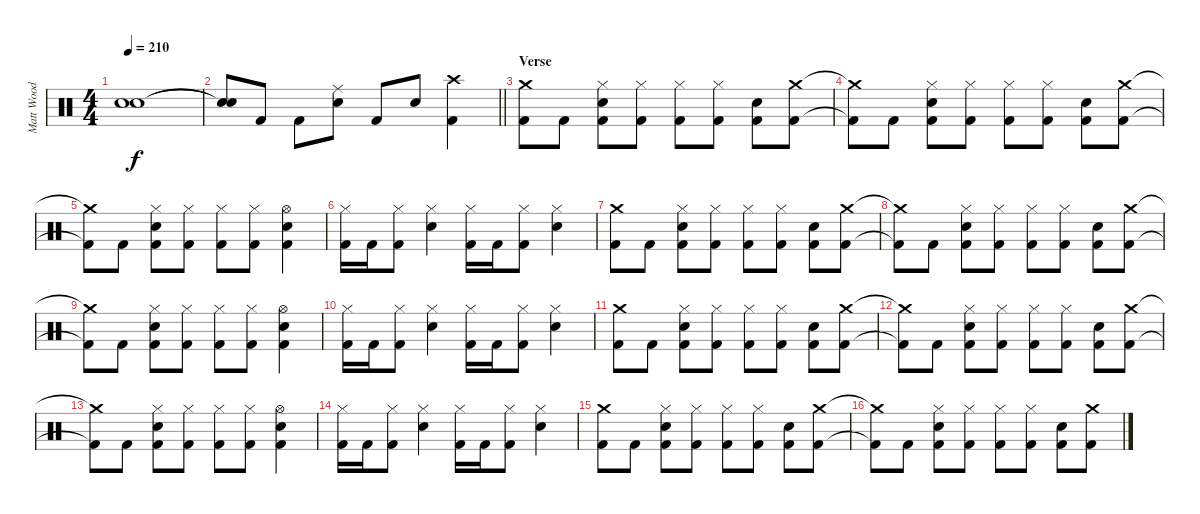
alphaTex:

\track ("Matt Wood" "Matt Wood") {instrument percussion}
\staff {score}
\articulation defaults
\ts (4 4)
\tempo 210
\clef neutral
\ks c
("Snare (hit)"{t} "Snare (hit)"{t}).1{dy f} |
\barLineRight lightlight
("Snare (hit)"{t} "Snare (hit)"{t}).8 "Kick (hit) 2".8 "Kick (hit) 2".8 ("Ride (middle)" "Snare (hit) 2").8 "Kick (hit) 2".8 "Snare (hit) 2".8 ("Crash high (hit)" "Kick (hit) 2").4 |
\section ("" "Verse")
("Crash medium (hit)" "Kick (hit) 2").8 "Kick (hit) 2".8 ("Hi-Hat (closed)" "Snare (hit) 2" "Kick (hit) 2").8 ("Hi-Hat (closed)" "Kick (hit) 2").8 ("Hi-Hat (closed)" "Kick (hit) 2").8 ("Hi-Hat (closed)" "Kick (hit) 2").8 ("Snare (hit) 2" "Kick (hit) 2").8 ("Crash medium (hit)" "Kick (hit) 2").8 |
("Crash medium (hit)"{t} "Kick (hit) 2"{t}).8 "Kick (hit) 2".8 ("Hi-Hat (closed)" "Snare (hit) 2" "Kick (hit) 2").8 ("Hi-Hat (closed)" "Kick (hit) 2").8 ("Hi-Hat (closed)" "Kick (hit) 2").8 ("Hi-Hat (closed)" "Kick (hit) 2").8 ("Snare (hit) 2" "Kick (hit) 2").8 ("Crash medium (hit)" "Kick (hit) 2").8 |
("Crash medium (hit)"{t} "Kick (hit) 2"{t}).8 "Kick (hit) 2".8 ("Hi-Hat (closed)" "Snare (hit) 2" "Kick (hit) 2").8 ("Hi-Hat (closed)" "Kick (hit) 2").8 ("Hi-Hat (closed)" "Kick (hit) 2").8 ("Hi-Hat (closed)" "Kick (hit) 2").8 ("Hi-Hat (open)" "Snare (hit) 2" "Kick (hit) 2").4 |
("Hi-Hat (closed)" "Kick (hit) 2").16 "Kick (hit) 2".16 ("Hi-Hat (closed)" "Kick (hit) 2").8 ("Hi-Hat (closed)" "Snare (hit) 2").4 ("Hi-Hat (closed)" "Kick (hit) 2").16 "Kick (hit) 2".16 ("Hi-Hat (closed)" "Kick (hit) 2").8 ("Hi-Hat (closed)" "Snare (hit) 2").4 |
("Crash medium (hit)" "Kick (hit) 2").8 "Kick (hit) 2".8 ("Hi-Hat (closed)" "Snare (hit) 2" "Kick (hit) 2").8 ("Hi-Hat (closed)" "Kick (hit) 2").8 ("Hi-Hat (closed)" "Kick (hit) 2").8 ("Hi-Hat (closed)" "Kick (hit) 2").8 ("Snare (hit) 2" "Kick (hit) 2").8 ("Crash medium (hit)" "Kick (hit) 2").8 |
("Crash medium (hit)"{t} "Kick (hit) 2"{t}).8 "Kick (hit) 2".8 ("Hi-Hat (closed)" "Snare (hit) 2" "Kick (hit) 2").8 ("Hi-Hat (closed)" "Kick (hit) 2").8 ("Hi-Hat (closed)" "Kick (hit) 2").8 ("Hi-Hat (closed)" "Kick (hit) 2").8 ("Snare (hit) 2" "Kick (hit) 2").8 ("Crash medium (hit)" "Kick (hit) 2").8 |
("Crash medium (hit)"{t} "Kick (hit) 2"{t}).8 "Kick (hit) 2".8 ("Hi-Hat (closed)" "Snare (hit) 2" "Kick (hit) 2").8 ("Hi-Hat (closed)" "Kick (hit) 2").8 ("Hi-Hat (closed)" "Kick (hit) 2").8 ("Hi-Hat (closed)" "Kick (hit) 2").8 ("Hi-Hat (open)" "Snare (hit) 2" "Kick (hit) 2").4 |
("Hi-Hat (closed)" "Kick (hit) 2").16 "Kick (hit) 2".16 ("Hi-Hat (closed)" "Kick (hit) 2").8 ("Hi-Hat (closed)" "Snare (hit) 2").4 ("Hi-Hat (closed)" "Kick (hit) 2").16 "Kick (hit) 2".16 ("Hi-Hat (closed)" "Kick (hit) 2").8 ("Hi-Hat (closed)" "Snare (hit) 2").4 |
("Crash medium (hit)" "Kick (hit) 2").8 "Kick (hit) 2".8 ("Hi-Hat (closed)" "Snare (hit) 2" "Kick (hit) 2").8 ("Hi-Hat (closed)" "Kick (hit) 2").8 ("Hi-Hat (closed)" "Kick (hit) 2").8 ("Hi-Hat (closed)" "Kick (hit) 2").8 ("Snare (hit) 2" "Kick (hit) 2").8 ("Crash medium (hit)" "Kick (hit) 2").8 |
("Crash medium (hit)"{t} "Kick (hit) 2"{t}).8 "Kick (hit) 2".8 ("Hi-Hat (closed)" "Snare (hit) 2" "Kick (hit) 2").8 ("Hi-Hat (closed)" "Kick (hit) 2").8 ("Hi-Hat (closed)" "Kick (hit) 2").8 ("Hi-Hat (closed)" "Kick (hit) 2").8 ("Snare (hit) 2" "Kick (hit) 2").8 ("Crash medium (hit)" "Kick (hit) 2").8 |
("Crash medium (hit)"{t} "Kick (hit) 2"{t}).8 "Kick (hit) 2".8 ("Hi-Hat (closed)" "Snare (hit) 2" "Kick (hit) 2").8 ("Hi-Hat (closed)" "Kick (hit) 2").8 ("Hi-Hat (closed)" "Kick (hit) 2").8 ("Hi-Hat (closed)" "Kick (hit) 2").8 ("Hi-Hat (open)" "Snare (hit) 2" "Kick (hit) 2").4 |
("Hi-Hat (closed)" "Kick (hit) 2").16 "Kick (hit) 2".16 ("Hi-Hat (closed)" "Kick (hit) 2").8 ("Hi-Hat (closed)" "Snare (hit) 2").4 ("Hi-Hat (closed)" "Kick (hit) 2").16 "Kick (hit) 2".16 ("Hi-Hat (closed)" "Kick (hit) 2").8 ("Hi-Hat (closed)" "Snare (hit) 2").4 |
("Crash medium (hit)" "Kick (hit) 2").8 "Kick (hit) 2".8 ("Hi-Hat (closed)" "Snare (hit) 2" "Kick (hit) 2").8 ("Hi-Hat (closed)" "Kick (hit) 2").8 ("Hi-Hat (closed)" "Kick (hit) 2").8 ("Hi-Hat (closed)" "Kick (hit) 2").8 ("Snare (hit) 2" "Kick (hit) 2").8 ("Crash medium (hit)" "Kick (hit) 2").8 |
("Crash medium (hit)"{t} "Kick (hit) 2"{t}).8 "Kick (hit) 2".8 ("Hi-Hat (closed)" "Snare (hit) 2" "Kick (hit) 2").8 ("Hi-Hat (closed)" "Kick (hit) 2").8 ("Hi-Hat (closed)" "Kick (hit) 2").8 ("Hi-Hat (closed)" "Kick (hit) 2").8 ("Snare (hit) 2" "Kick (hit) 2").8 ("Crash medium (hit)" "Kick (hit) 2").8
